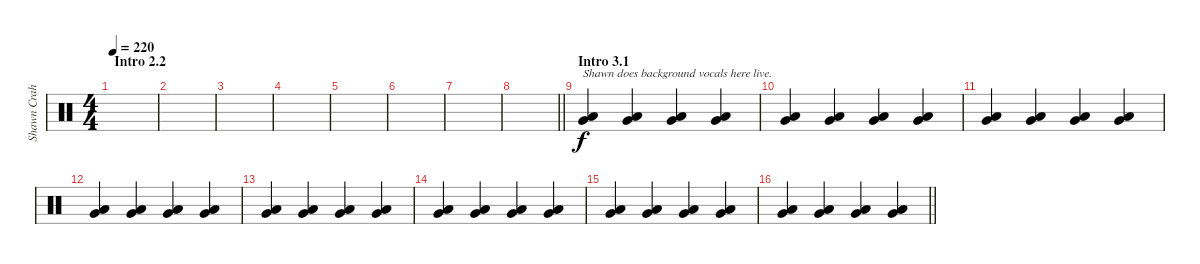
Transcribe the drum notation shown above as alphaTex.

\track ("Shawn Crahan" "Shawn Crah") {instrument percussion}
\staff {score}
\articulation defaults
\ts (4 4)
\section ("" "Intro 2.2")
\tempo 220
\clef neutral
\ks c
|
|
|
|
|
|
|
\barLineRight lightlight
|
\section ("" "Intro 3.1")
("Very Low Tom (hit)" "Low Floor Tom (hit)").4{txt "Shawn does background vocals here live."} ("Very Low Tom (hit)" "Low Floor Tom (hit)").4 ("Very Low Tom (hit)" "Low Floor Tom (hit)").4 ("Very Low Tom (hit)" "Low Floor Tom (hit)").4 |
("Very Low Tom (hit)" "Low Floor Tom (hit)").4 ("Very Low Tom (hit)" "Low Floor Tom (hit)").4 ("Very Low Tom (hit)" "Low Floor Tom (hit)").4 ("Very Low Tom (hit)" "Low Floor Tom (hit)").4 |
("Very Low Tom (hit)" "Low Floor Tom (hit)").4 ("Very Low Tom (hit)" "Low Floor Tom (hit)").4 ("Very Low Tom (hit)" "Low Floor Tom (hit)").4 ("Very Low Tom (hit)" "Low Floor Tom (hit)").4 |
("Very Low Tom (hit)" "Low Floor Tom (hit)").4 ("Very Low Tom (hit)" "Low Floor Tom (hit)").4 ("Very Low Tom (hit)" "Low Floor Tom (hit)").4 ("Very Low Tom (hit)" "Low Floor Tom (hit)").4 |
("Very Low Tom (hit)" "Low Floor Tom (hit)").4 ("Very Low Tom (hit)" "Low Floor Tom (hit)").4 ("Very Low Tom (hit)" "Low Floor Tom (hit)").4 ("Very Low Tom (hit)" "Low Floor Tom (hit)").4 |
("Very Low Tom (hit)" "Low Floor Tom (hit)").4 ("Very Low Tom (hit)" "Low Floor Tom (hit)").4 ("Very Low Tom (hit)" "Low Floor Tom (hit)").4 ("Very Low Tom (hit)" "Low Floor Tom (hit)").4 |
("Very Low Tom (hit)" "Low Floor Tom (hit)").4 ("Very Low Tom (hit)" "Low Floor Tom (hit)").4 ("Very Low Tom (hit)" "Low Floor Tom (hit)").4 ("Very Low Tom (hit)" "Low Floor Tom (hit)").4 |
\barLineRight lightlight
("Very Low Tom (hit)" "Low Floor Tom (hit)").4 ("Very Low Tom (hit)" "Low Floor Tom (hit)").4 ("Very Low Tom (hit)" "Low Floor Tom (hit)").4 ("Very Low Tom (hit)" "Low Floor Tom (hit)").4
